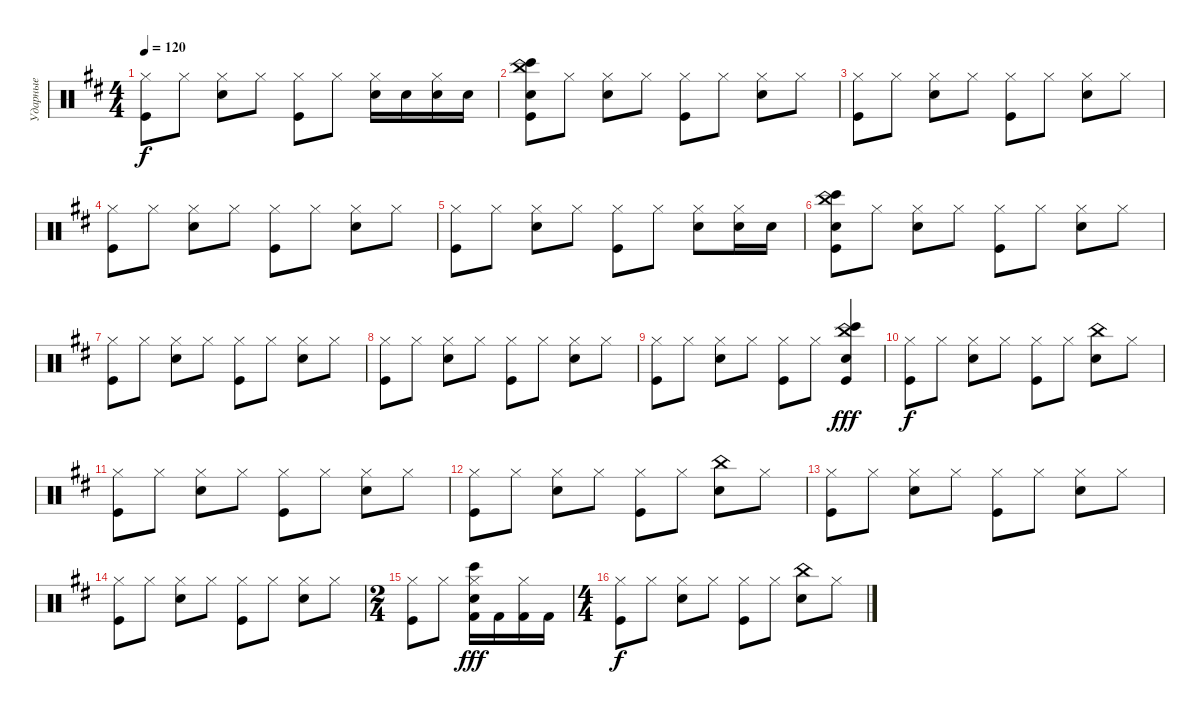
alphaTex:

\track ("Ударные" "Ударные") {instrument percussion}
\staff {score}
\articulation defaults
\ts (4 4)
\tempo 120
\clef neutral
\ks bminor
("Hi-Hat (closed)" "Kick (hit)").8{dy f} "Hi-Hat (closed)".8 ("Hi-Hat (closed)" "Snare (hit) 2").8 "Hi-Hat (closed)".8 ("Hi-Hat (closed)" "Kick (hit)").8 "Hi-Hat (closed)".8 ("Hi-Hat (closed)" "Snare (hit) 2").16 "Snare (hit) 2".16 ("Hi-Hat (closed)" "Snare (hit) 2").16 "Snare (hit) 2".16 |
("Bongo High (hit)" "Kick (hit)" "China (hit)" "Hand Clap (hit)").8 "Hi-Hat (closed)".8 ("Hi-Hat (closed)" "Snare (hit) 2").8 "Hi-Hat (closed)".8 ("Hi-Hat (closed)" "Kick (hit)").8 "Hi-Hat (closed)".8 ("Hi-Hat (closed)" "Snare (hit) 2").8 "Hi-Hat (closed)".8 |
("Hi-Hat (closed)" "Kick (hit)").8 "Hi-Hat (closed)".8 ("Hi-Hat (closed)" "Snare (hit) 2").8 "Hi-Hat (closed)".8 ("Hi-Hat (closed)" "Kick (hit)").8 "Hi-Hat (closed)".8 ("Hi-Hat (closed)" "Snare (hit) 2").8 "Hi-Hat (closed)".8 |
("Hi-Hat (closed)" "Kick (hit)").8 "Hi-Hat (closed)".8 ("Hi-Hat (closed)" "Snare (hit) 2").8 "Hi-Hat (closed)".8 ("Hi-Hat (closed)" "Kick (hit)").8 "Hi-Hat (closed)".8 ("Hi-Hat (closed)" "Snare (hit) 2").8 "Hi-Hat (closed)".8 |
("Hi-Hat (closed)" "Kick (hit)").8 "Hi-Hat (closed)".8 ("Hi-Hat (closed)" "Snare (hit) 2").8 "Hi-Hat (closed)".8 ("Hi-Hat (closed)" "Kick (hit)").8 "Hi-Hat (closed)".8 ("Hi-Hat (closed)" "Snare (hit) 2").8 ("Hi-Hat (closed)" "Snare (hit) 2").16 "Snare (hit) 2".16 |
("Bongo High (hit)" "Kick (hit)" "China (hit)" "Hand Clap (hit)").8 "Hi-Hat (closed)".8 ("Hi-Hat (closed)" "Snare (hit) 2").8 "Hi-Hat (closed)".8 ("Hi-Hat (closed)" "Kick (hit)").8 "Hi-Hat (closed)".8 ("Hi-Hat (closed)" "Snare (hit) 2").8 "Hi-Hat (closed)".8 |
("Hi-Hat (closed)" "Kick (hit)").8 "Hi-Hat (closed)".8 ("Hi-Hat (closed)" "Snare (hit) 2").8 "Hi-Hat (closed)".8 ("Hi-Hat (closed)" "Kick (hit)").8 "Hi-Hat (closed)".8 ("Hi-Hat (closed)" "Snare (hit) 2").8 "Hi-Hat (closed)".8 |
("Hi-Hat (closed)" "Kick (hit)").8 "Hi-Hat (closed)".8 ("Hi-Hat (closed)" "Snare (hit) 2").8 "Hi-Hat (closed)".8 ("Hi-Hat (closed)" "Kick (hit)").8 "Hi-Hat (closed)".8 ("Hi-Hat (closed)" "Snare (hit) 2").8 "Hi-Hat (closed)".8 |
("Hi-Hat (closed)" "Kick (hit)").8 "Hi-Hat (closed)".8 ("Hi-Hat (closed)" "Snare (hit) 2").8 "Hi-Hat (closed)".8 ("Hi-Hat (closed)" "Kick (hit)").8 "Hi-Hat (closed)".8 ("Kick (hit)" "China (hit)" "Hand Clap (hit)" "Bongo High (hit)").4{dy fff} |
\ks d
("Hi-Hat (closed)" "Kick (hit)").8{dy f} "Hi-Hat (closed)".8 ("Hi-Hat (closed)" "Snare (hit) 2").8 "Hi-Hat (closed)".8 ("Hi-Hat (closed)" "Kick (hit)").8 "Hi-Hat (closed)".8 ("China (hit)" "Snare (hit) 2").8{balance 14} "Hi-Hat (closed)".8{balance 8} |
("Hi-Hat (closed)" "Kick (hit)").8 "Hi-Hat (closed)".8 ("Hi-Hat (closed)" "Snare (hit) 2").8 "Hi-Hat (closed)".8 ("Hi-Hat (closed)" "Kick (hit)").8 "Hi-Hat (closed)".8 ("Hi-Hat (closed)" "Snare (hit) 2").8 "Hi-Hat (closed)".8 |
("Hi-Hat (closed)" "Kick (hit)").8 "Hi-Hat (closed)".8 ("Hi-Hat (closed)" "Snare (hit) 2").8 "Hi-Hat (closed)".8 ("Hi-Hat (closed)" "Kick (hit)").8 "Hi-Hat (closed)".8 ("China (hit)" "Snare (hit) 2").8{balance 14} "Hi-Hat (closed)".8{balance 8} |
("Hi-Hat (closed)" "Kick (hit)").8 "Hi-Hat (closed)".8 ("Hi-Hat (closed)" "Snare (hit) 2").8 "Hi-Hat (closed)".8 ("Hi-Hat (closed)" "Kick (hit)").8 "Hi-Hat (closed)".8 ("Hi-Hat (closed)" "Snare (hit) 2").8 "Hi-Hat (closed)".8 |
("Hi-Hat (closed)" "Kick (hit)").8 "Hi-Hat (closed)".8 ("Hi-Hat (closed)" "Snare (hit) 2").8 "Hi-Hat (closed)".8 ("Hi-Hat (closed)" "Kick (hit)").8 "Hi-Hat (closed)".8 ("Hi-Hat (closed)" "Snare (hit) 2").8 "Hi-Hat (closed)".8 |
\ts (2 4)
("Hi-Hat (closed)" "Kick (hit)").8 "Hi-Hat (closed)".8 ("Hi-Hat (closed)" "Snare (hit) 2" "Kick (hit) 2" "Bongo High (hit)").16{dy fff} "Kick (hit) 2".16 ("Hi-Hat (closed)" "Kick (hit) 2").16 "Kick (hit) 2".16 |
\ts (4 4)
("Hi-Hat (closed)" "Kick (hit)").8{dy f} "Hi-Hat (closed)".8 ("Hi-Hat (closed)" "Snare (hit) 2").8 "Hi-Hat (closed)".8 ("Hi-Hat (closed)" "Kick (hit)").8 "Hi-Hat (closed)".8 ("China (hit)" "Snare (hit) 2").8 "Hi-Hat (closed)".8
